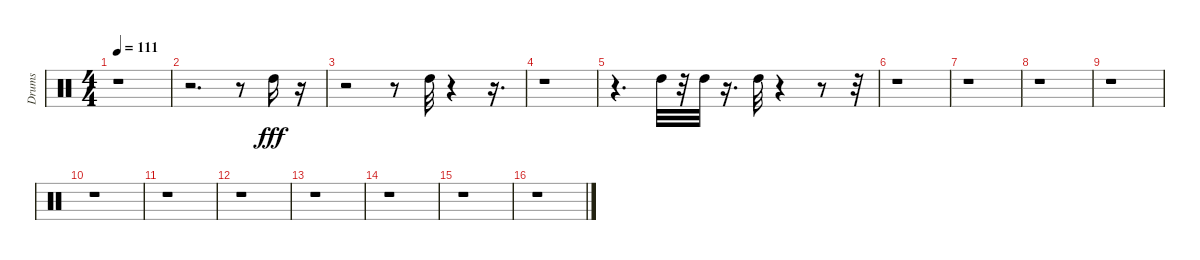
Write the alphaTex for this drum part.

\track ("Drums" "Drums") {instrument percussion}
\staff {score}
\articulation defaults
\ts (4 4)
\tempo 111
\clef neutral
\ks c
r.1{dy fff} |
r.2{d} r.8 "High Tom (hit)".16 r.16 |
r.2 r.8 "High Tom (hit)".32 r.4 r.16{d} |
r.1 |
r.4{d} "High Tom (hit)".32 r.32 "High Tom (hit)".32 r.16{d} "High Tom (hit)".32 r.4 r.8 r.32 |
r.1 |
r.1 |
r.1 |
r.1 |
r.1 |
r.1 |
r.1 |
r.1 |
r.1 |
r.1 |
r.1
